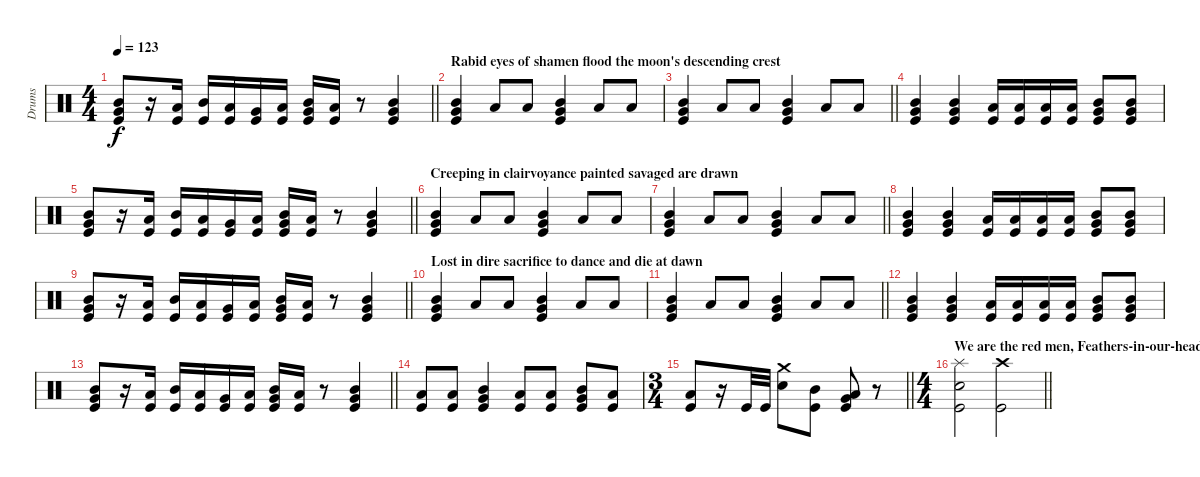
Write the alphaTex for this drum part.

\track ("Drums" "Drums") {instrument percussion}
\staff {score}
\articulation defaults
\ts (4 4)
\tempo 123
\clef neutral
\barLineRight lightlight
\ks c
("Mid Tom (hit)" "Very Low Tom (hit)" "Kick (hit)").8{dy f} r.16 ("Low Tom (hit)" "Kick (hit)").16 ("Mid Tom (hit)" "Kick (hit)").16 ("Low Tom (hit)" "Kick (hit)").16 ("Very Low Tom (hit)" "Kick (hit)").16 ("Low Floor Tom (hit)" "Kick (hit)").16 ("Mid Tom (hit)" "Very Low Tom (hit)" "Kick (hit)").16 ("Low Tom (hit)" "Kick (hit)").16 r.8 ("Mid Tom (hit)" "Very Low Tom (hit)" "Kick (hit)").4 |
\section ("" "Rabid eyes of shamen flood the moon's descending crest ")
("Mid Tom (hit)" "Very Low Tom (hit)" "Kick (hit)").4 "Low Tom (hit)".8 "Low Tom (hit)".8 ("Mid Tom (hit)" "Very Low Tom (hit)" "Kick (hit)").4 "Low Tom (hit)".8 "Low Tom (hit)".8 |
\barLineRight lightlight
("Mid Tom (hit)" "Very Low Tom (hit)" "Kick (hit)").4 "Low Tom (hit)".8 "Low Tom (hit)".8 ("Mid Tom (hit)" "Very Low Tom (hit)" "Kick (hit)").4 "Low Tom (hit)".8 "Low Tom (hit)".8 |
("Mid Tom (hit)" "Very Low Tom (hit)" "Kick (hit)").4 ("Mid Tom (hit)" "Very Low Tom (hit)" "Kick (hit)").4 ("Low Tom (hit)" "Kick (hit)").16 ("Low Tom (hit)" "Kick (hit)").16 ("Low Tom (hit)" "Kick (hit)").16 ("Low Tom (hit)" "Kick (hit)").16 ("Mid Tom (hit)" "Very Low Tom (hit)" "Kick (hit)").8 ("Mid Tom (hit)" "Very Low Tom (hit)" "Kick (hit)").8 |
\barLineRight lightlight
("Mid Tom (hit)" "Very Low Tom (hit)" "Kick (hit)").8 r.16 ("Low Tom (hit)" "Kick (hit)").16 ("Mid Tom (hit)" "Kick (hit)").16 ("Low Tom (hit)" "Kick (hit)").16 ("Very Low Tom (hit)" "Kick (hit)").16 ("Low Floor Tom (hit)" "Kick (hit)").16 ("Mid Tom (hit)" "Very Low Tom (hit)" "Kick (hit)").16 ("Low Tom (hit)" "Kick (hit)").16 r.8 ("Mid Tom (hit)" "Very Low Tom (hit)" "Kick (hit)").4 |
\section ("" "Creeping in clairvoyance painted savaged are drawn ")
("Mid Tom (hit)" "Very Low Tom (hit)" "Kick (hit)").4 "Low Tom (hit)".8 "Low Tom (hit)".8 ("Mid Tom (hit)" "Very Low Tom (hit)" "Kick (hit)").4 "Low Tom (hit)".8 "Low Tom (hit)".8 |
\barLineRight lightlight
("Mid Tom (hit)" "Very Low Tom (hit)" "Kick (hit)").4 "Low Tom (hit)".8 "Low Tom (hit)".8 ("Mid Tom (hit)" "Very Low Tom (hit)" "Kick (hit)").4 "Low Tom (hit)".8 "Low Tom (hit)".8 |
("Mid Tom (hit)" "Very Low Tom (hit)" "Kick (hit)").4 ("Mid Tom (hit)" "Very Low Tom (hit)" "Kick (hit)").4 ("Low Tom (hit)" "Kick (hit)").16 ("Low Tom (hit)" "Kick (hit)").16 ("Low Tom (hit)" "Kick (hit)").16 ("Low Tom (hit)" "Kick (hit)").16 ("Mid Tom (hit)" "Very Low Tom (hit)" "Kick (hit)").8 ("Mid Tom (hit)" "Very Low Tom (hit)" "Kick (hit)").8 |
\barLineRight lightlight
("Mid Tom (hit)" "Very Low Tom (hit)" "Kick (hit)").8 r.16 ("Low Tom (hit)" "Kick (hit)").16 ("Mid Tom (hit)" "Kick (hit)").16 ("Low Tom (hit)" "Kick (hit)").16 ("Very Low Tom (hit)" "Kick (hit)").16 ("Low Floor Tom (hit)" "Kick (hit)").16 ("Mid Tom (hit)" "Very Low Tom (hit)" "Kick (hit)").16 ("Low Tom (hit)" "Kick (hit)").16 r.8 ("Mid Tom (hit)" "Very Low Tom (hit)" "Kick (hit)").4 |
\section ("" "Lost in dire sacrifice to dance and die at dawn ")
("Mid Tom (hit)" "Very Low Tom (hit)" "Kick (hit)").4 "Low Tom (hit)".8 "Low Tom (hit)".8 ("Mid Tom (hit)" "Very Low Tom (hit)" "Kick (hit)").4 "Low Tom (hit)".8 "Low Tom (hit)".8 |
\barLineRight lightlight
("Mid Tom (hit)" "Very Low Tom (hit)" "Kick (hit)").4 "Low Tom (hit)".8 "Low Tom (hit)".8 ("Mid Tom (hit)" "Very Low Tom (hit)" "Kick (hit)").4 "Low Tom (hit)".8 "Low Tom (hit)".8 |
("Mid Tom (hit)" "Very Low Tom (hit)" "Kick (hit)").4 ("Mid Tom (hit)" "Very Low Tom (hit)" "Kick (hit)").4 ("Low Tom (hit)" "Kick (hit)").16 ("Low Tom (hit)" "Kick (hit)").16 ("Low Tom (hit)" "Kick (hit)").16 ("Low Tom (hit)" "Kick (hit)").16 ("Mid Tom (hit)" "Very Low Tom (hit)" "Kick (hit)").8 ("Mid Tom (hit)" "Very Low Tom (hit)" "Kick (hit)").8 |
\barLineRight lightlight
("Mid Tom (hit)" "Very Low Tom (hit)" "Kick (hit)").8 r.16 ("Low Tom (hit)" "Kick (hit)").16 ("Mid Tom (hit)" "Kick (hit)").16 ("Low Tom (hit)" "Kick (hit)").16 ("Very Low Tom (hit)" "Kick (hit)").16 ("Low Floor Tom (hit)" "Kick (hit)").16 ("Mid Tom (hit)" "Very Low Tom (hit)" "Kick (hit)").16 ("Low Tom (hit)" "Kick (hit)").16 r.8 ("Mid Tom (hit)" "Very Low Tom (hit)" "Kick (hit)").4 |
("Low Tom (hit)" "Kick (hit)").8 ("Low Tom (hit)" "Kick (hit)").8 ("Mid Tom (hit)" "Very Low Tom (hit)" "Kick (hit)").4 ("Low Tom (hit)" "Kick (hit)").8 ("Low Tom (hit)" "Kick (hit)").8 ("Mid Tom (hit)" "Very Low Tom (hit)" "Kick (hit)").8 ("Low Tom (hit)" "Kick (hit)").8 |
\ts (3 4)
\barLineRight lightlight
("Low Tom (hit)" "Kick (hit)").8 r.16 "Kick (hit)".32 "Kick (hit)".32 ("Crash medium (hit)" "Snare (hit) 2").8 ("Mid Tom (hit)" "Kick (hit)").8 ("Low Tom (hit)" "Very Low Tom (hit)" "Kick (hit)").8 r.8 |
\ts (4 4)
\section ("" "We are the red men, Feathers-in-our-head men")
\barLineRight lightlight
("Splash (hit)" "Snare (hit) 2" "Kick (hit)").2 ("Crash high (hit)" "Kick (hit)").2
